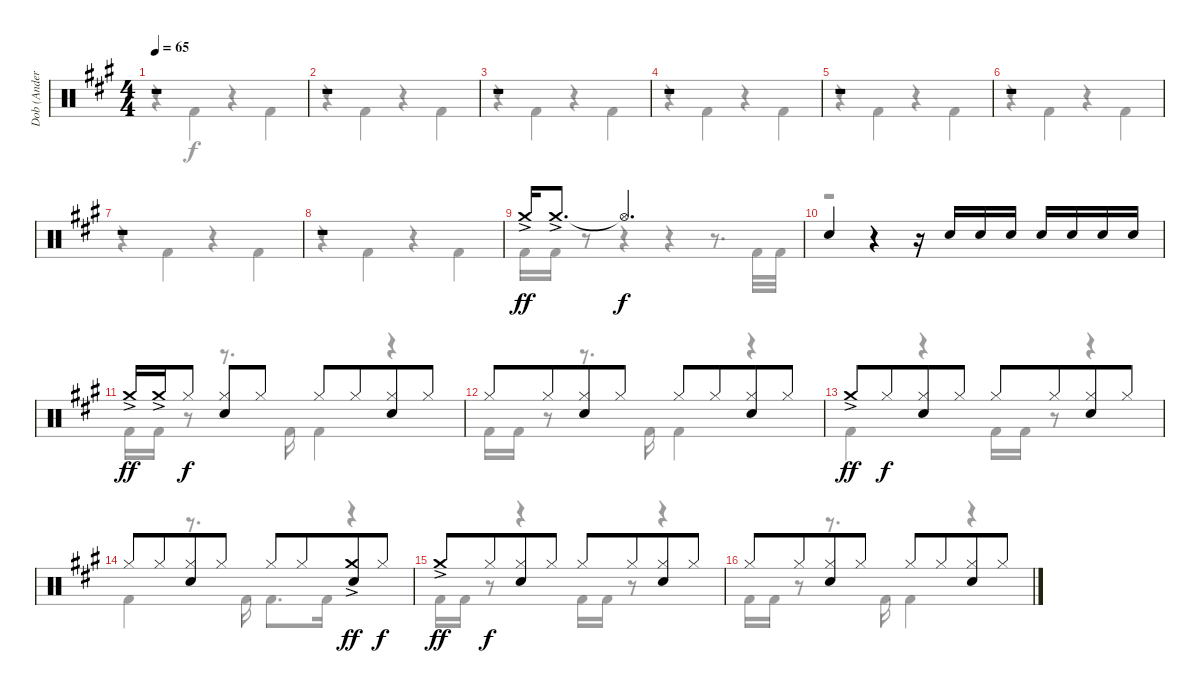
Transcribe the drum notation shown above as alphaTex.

\track ("Dob (Anders Johansson)" "Dob (Ander") {instrument percussion}
\staff {score}
\articulation defaults
\voice
\ts (4 4)
\tempo 65
\clef neutral
\ks a
r.1{dy ff} |
r.1 |
r.1 |
r.1 |
r.1 |
r.1 |
r.1 |
r.1 |
"Crash medium (hit)"{ac}.16 "Crash medium (hit)"{ac}.8{d} "Hi-Hat (open)"{t}.2{d dy f} |
"Electric Snare (hit)".4 r.4 r.16 "Electric Snare (hit)".16 "Electric Snare (hit)".16 "Electric Snare (hit)".16 "Electric Snare (hit)".16 "Electric Snare (hit)".16 "Electric Snare (hit)".16 "Electric Snare (hit)".16 |
"Crash medium (hit)"{ac}.16{dy ff} "Crash medium (hit)"{ac}.16 "Hi-Hat (closed)".8{dy f} ("Hi-Hat (closed)" "Electric Snare (hit)").8 "Hi-Hat (closed)".8 "Hi-Hat (closed)".8 "Hi-Hat (closed)".8{beam merge} ("Hi-Hat (closed)" "Electric Snare (hit)").8 "Hi-Hat (closed)".8 |
"Hi-Hat (closed)".8 "Hi-Hat (closed)".8{beam merge} ("Hi-Hat (closed)" "Electric Snare (hit)").8 "Hi-Hat (closed)".8 "Hi-Hat (closed)".8 "Hi-Hat (closed)".8{beam merge} ("Hi-Hat (closed)" "Electric Snare (hit)").8 "Hi-Hat (closed)".8 |
"Crash medium (hit)"{ac}.8{dy ff} "Hi-Hat (closed)".8{dy f beam merge} ("Hi-Hat (closed)" "Electric Snare (hit)").8 "Hi-Hat (closed)".8 "Hi-Hat (closed)".8 "Hi-Hat (closed)".8{beam merge} ("Hi-Hat (closed)" "Electric Snare (hit)").8 "Hi-Hat (closed)".8 |
"Hi-Hat (closed)".8 "Hi-Hat (closed)".8{beam merge} ("Hi-Hat (closed)" "Electric Snare (hit)").8 "Hi-Hat (closed)".8 "Hi-Hat (closed)".8 "Hi-Hat (closed)".8{beam merge} ("Crash medium (hit)"{ac} "Electric Snare (hit)").8{dy ff} "Hi-Hat (closed)".8{dy f} |
"Crash medium (hit)"{ac}.8{dy ff} "Hi-Hat (closed)".8{dy f beam merge} ("Hi-Hat (closed)" "Electric Snare (hit)").8 "Hi-Hat (closed)".8 "Hi-Hat (closed)".8 "Hi-Hat (closed)".8{beam merge} ("Hi-Hat (closed)" "Electric Snare (hit)").8 "Hi-Hat (closed)".8 |
"Hi-Hat (closed)".8 "Hi-Hat (closed)".8{beam merge} ("Hi-Hat (closed)" "Electric Snare (hit)").8 "Hi-Hat (closed)".8 "Hi-Hat (closed)".8 "Hi-Hat (closed)".8{beam merge} ("Hi-Hat (closed)" "Electric Snare (hit)").8 "Hi-Hat (closed)".8
\voice
\clef neutral
\ottava regular
\simile none
\ks a
r.4{dy f} "Kick (hit) 2".4 r.4 "Kick (hit) 2".4 |
r.4 "Kick (hit) 2".4 r.4 "Kick (hit) 2".4 |
r.4 "Kick (hit) 2".4 r.4 "Kick (hit) 2".4 |
r.4 "Kick (hit) 2".4 r.4 "Kick (hit) 2".4 |
r.4 "Kick (hit) 2".4 r.4 "Kick (hit) 2".4 |
r.4 "Kick (hit) 2".4 r.4 "Kick (hit) 2".4 |
r.4 "Kick (hit) 2".4 r.4 "Kick (hit) 2".4 |
r.4 "Kick (hit) 2".4 r.4 "Kick (hit) 2".4 |
"Kick (hit) 2".16 "Kick (hit) 2".16 r.8 r.4 r.4 r.8{d} "Kick (hit) 2".32 "Kick (hit) 2".32 |
r.1 |
"Kick (hit) 2".16 "Kick (hit) 2".16 r.8 r.8{d} "Kick (hit) 2".16 "Kick (hit) 2".4 r.4 |
"Kick (hit) 2".16 "Kick (hit) 2".16 r.8 r.8{d} "Kick (hit) 2".16 "Kick (hit) 2".4 r.4 |
"Kick (hit) 2".4 r.4 "Kick (hit) 2".16 "Kick (hit) 2".16 r.8 r.4 |
"Kick (hit) 2".4 r.8{d} "Kick (hit) 2".16 "Kick (hit) 2".8{d} "Kick (hit) 2".16 r.4 |
"Kick (hit) 2".16 "Kick (hit) 2".16 r.8 r.4 "Kick (hit) 2".16 "Kick (hit) 2".16 r.8 r.4 |
"Kick (hit) 2".16 "Kick (hit) 2".16 r.8 r.8{d} "Kick (hit) 2".16 "Kick (hit) 2".4 r.4
